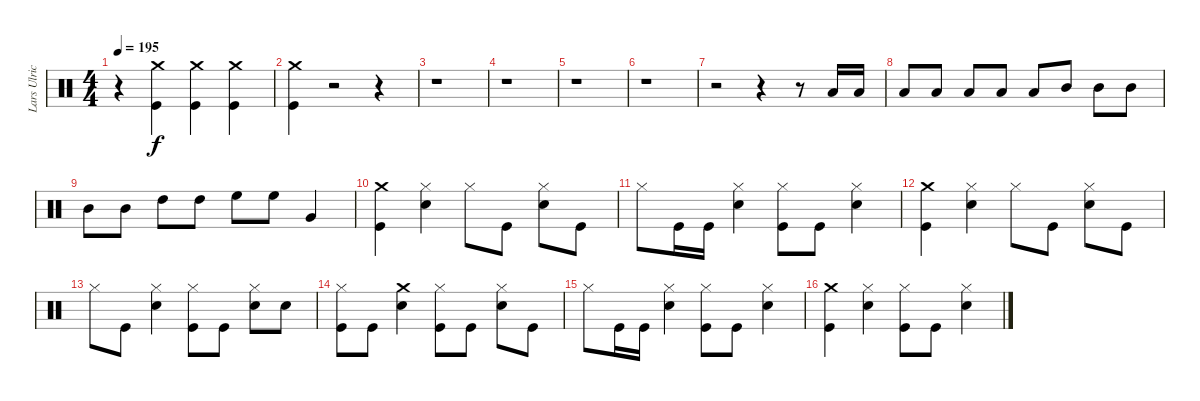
\track ("Lars Ulrich (Drums)" "Lars Ulric") {instrument percussion}
\staff {score}
\articulation defaults
\ts (4 4)
\tempo 195
\clef neutral
\ks c
r.4{dy f} ("Kick (hit)" "Crash medium (hit)").4 ("Kick (hit)" "Crash medium (hit)").4 ("Kick (hit)" "Crash medium (hit)").4 |
("Kick (hit)" "Crash medium (hit)").4 r.2 r.4 |
r.1 |
r.1 |
r.1 |
r.1 |
r.2 r.4 r.8 "Low Tom (hit)".16 "Low Tom (hit)".16 |
"Low Tom (hit)".8 "Low Tom (hit)".8 "Low Tom (hit)".8 "Low Tom (hit)".8 "Low Tom (hit)".8 "Mid Tom (hit)".8 "Mid Tom (hit)".8 "Mid Tom (hit)".8 |
"Mid Tom (hit)".8 "Mid Tom (hit)".8 "High Tom (hit)".8 "High Tom (hit)".8 "High Floor Tom (hit)".8 "High Floor Tom (hit)".8 "Very Low Tom (hit)".4 |
("Kick (hit)" "Crash medium (hit)").4 ("Hi-Hat (closed)" "Snare (hit) 2").4 "Hi-Hat (closed)".8 "Kick (hit)".8 ("Snare (hit) 2" "Hi-Hat (closed)").8 "Kick (hit)".8 |
"Hi-Hat (closed)".8 "Kick (hit)".16 "Kick (hit)".16 ("Snare (hit) 2" "Hi-Hat (closed)").4 ("Kick (hit)" "Hi-Hat (closed)").8 "Kick (hit)".8 ("Snare (hit) 2" "Hi-Hat (closed)").4 |
("Kick (hit)" "Crash medium (hit)").4 ("Snare (hit) 2" "Hi-Hat (closed)").4 "Hi-Hat (closed)".8 "Kick (hit)".8 ("Snare (hit) 2" "Hi-Hat (closed)").8 "Kick (hit)".8 |
"Hi-Hat (closed)".8 "Kick (hit)".8 ("Snare (hit) 2" "Hi-Hat (closed)").4 ("Kick (hit)" "Hi-Hat (closed)").8 "Kick (hit)".8 ("Snare (hit) 2" "Hi-Hat (closed)").8 "Snare (hit) 2".8 |
("Hi-Hat (closed)" "Kick (hit)").8 "Kick (hit)".8 ("Crash medium (hit)" "Snare (hit) 2").4 ("Hi-Hat (closed)" "Kick (hit)").8 "Kick (hit)".8 ("Snare (hit) 2" "Hi-Hat (closed)").8 "Kick (hit)".8 |
"Hi-Hat (closed)".8 "Kick (hit)".16 "Kick (hit)".16 ("Snare (hit) 2" "Hi-Hat (closed)").4 ("Kick (hit)" "Hi-Hat (closed)").8 "Kick (hit)".8 ("Snare (hit) 2" "Hi-Hat (closed)").4 |
("Kick (hit)" "Crash medium (hit)").4 ("Snare (hit) 2" "Hi-Hat (closed)").4 ("Hi-Hat (closed)" "Kick (hit)").8 "Kick (hit)".8 ("Snare (hit) 2" "Hi-Hat (closed)").4
